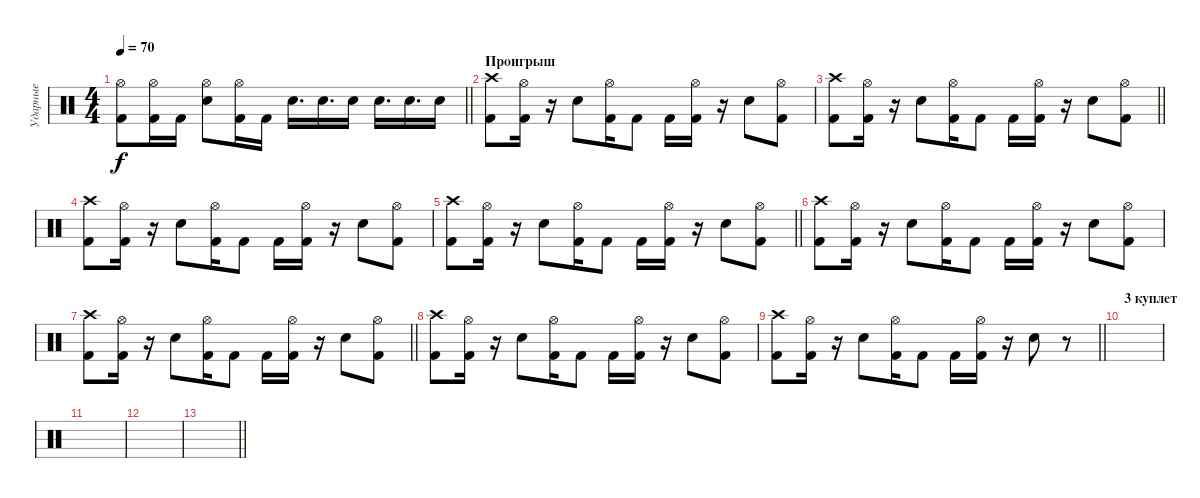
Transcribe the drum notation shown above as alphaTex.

\track ("Ударные" "Ударные") {instrument percussion}
\staff {score}
\articulation defaults
\ts (4 4)
\tempo 70
\clef neutral
\barLineRight lightlight
\ks c
("Hi-Hat (open)" "Kick (hit) 2").8{dy f} ("Hi-Hat (open)" "Kick (hit) 2").16 "Kick (hit) 2".16 ("Hi-Hat (open)" "Snare (hit) 2").8 ("Hi-Hat (open)" "Kick (hit) 2").16 "Kick (hit) 2".16 "Snare (hit) 2".16{d} "Snare (hit) 2".16{d} "Snare (hit) 2".16 "Snare (hit) 2".16{d} "Snare (hit) 2".16{d} "Snare (hit) 2".16 |
\section ("" "Проигрыш")
("Kick (hit) 2" "Crash high (hit)").8 ("Kick (hit) 2" "Hi-Hat (open)").16 r.16 "Snare (hit) 2".8 ("Kick (hit) 2" "Hi-Hat (open)").16 "Kick (hit) 2".8 "Kick (hit) 2".16 ("Kick (hit) 2" "Hi-Hat (open)").16 r.16 "Snare (hit) 2".8 ("Kick (hit) 2" "Hi-Hat (open)").8 |
\barLineRight lightlight
("Kick (hit) 2" "Crash high (hit)").8 ("Kick (hit) 2" "Hi-Hat (open)").16 r.16 "Snare (hit) 2".8 ("Kick (hit) 2" "Hi-Hat (open)").16 "Kick (hit) 2".8 "Kick (hit) 2".16 ("Kick (hit) 2" "Hi-Hat (open)").16 r.16 "Snare (hit) 2".8 ("Kick (hit) 2" "Hi-Hat (open)").8 |
("Kick (hit) 2" "Crash high (hit)").8 ("Kick (hit) 2" "Hi-Hat (open)").16 r.16 "Snare (hit) 2".8 ("Kick (hit) 2" "Hi-Hat (open)").16 "Kick (hit) 2".8 "Kick (hit) 2".16 ("Kick (hit) 2" "Hi-Hat (open)").16 r.16 "Snare (hit) 2".8 ("Kick (hit) 2" "Hi-Hat (open)").8 |
\barLineRight lightlight
("Kick (hit) 2" "Crash high (hit)").8 ("Kick (hit) 2" "Hi-Hat (open)").16 r.16 "Snare (hit) 2".8 ("Kick (hit) 2" "Hi-Hat (open)").16 "Kick (hit) 2".8 "Kick (hit) 2".16 ("Kick (hit) 2" "Hi-Hat (open)").16 r.16 "Snare (hit) 2".8 ("Kick (hit) 2" "Hi-Hat (open)").8 |
("Kick (hit) 2" "Crash high (hit)").8 ("Kick (hit) 2" "Hi-Hat (open)").16 r.16 "Snare (hit) 2".8 ("Kick (hit) 2" "Hi-Hat (open)").16 "Kick (hit) 2".8 "Kick (hit) 2".16 ("Kick (hit) 2" "Hi-Hat (open)").16 r.16 "Snare (hit) 2".8 ("Kick (hit) 2" "Hi-Hat (open)").8 |
\barLineRight lightlight
("Kick (hit) 2" "Crash high (hit)").8 ("Kick (hit) 2" "Hi-Hat (open)").16 r.16 "Snare (hit) 2".8 ("Kick (hit) 2" "Hi-Hat (open)").16 "Kick (hit) 2".8 "Kick (hit) 2".16 ("Kick (hit) 2" "Hi-Hat (open)").16 r.16 "Snare (hit) 2".8 ("Kick (hit) 2" "Hi-Hat (open)").8 |
("Kick (hit) 2" "Crash high (hit)").8 ("Kick (hit) 2" "Hi-Hat (open)").16 r.16 "Snare (hit) 2".8 ("Kick (hit) 2" "Hi-Hat (open)").16 "Kick (hit) 2".8 "Kick (hit) 2".16 ("Kick (hit) 2" "Hi-Hat (open)").16 r.16 "Snare (hit) 2".8 ("Kick (hit) 2" "Hi-Hat (open)").8 |
\barLineRight lightlight
("Kick (hit) 2" "Crash high (hit)").8 ("Kick (hit) 2" "Hi-Hat (open)").16 r.16 "Snare (hit) 2".8 ("Kick (hit) 2" "Hi-Hat (open)").16 "Kick (hit) 2".8 "Kick (hit) 2".16 ("Kick (hit) 2" "Hi-Hat (open)").16 r.16 "Snare (hit) 2".8 r.8 |
\section ("" "3 куплет")
|
|
|
\barLineRight lightlight
